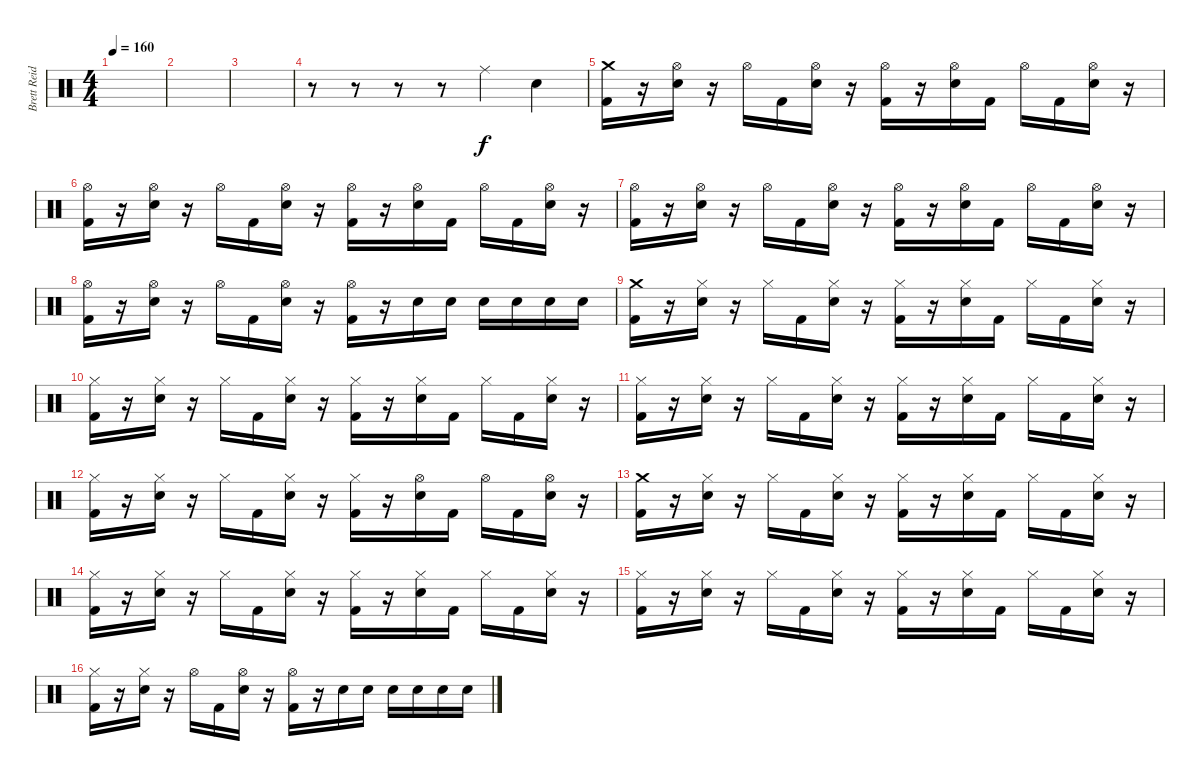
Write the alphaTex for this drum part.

\track ("Brett Reid" "Brett Reid") {instrument percussion}
\staff {score}
\articulation defaults
\ts (4 4)
\tempo 160
\clef neutral
\ks c
|
|
|
r.8 r.8 r.8 r.8 "Ride (middle)".4 "Snare (hit) 2".4 |
("Crash medium (hit)" "Kick (hit) 2").16 r.16 ("Hi-Hat (open)" "Snare (hit) 2").16 r.16 "Hi-Hat (open)".16 "Kick (hit) 2".16 ("Hi-Hat (open)" "Snare (hit) 2").16 r.16 ("Hi-Hat (open)" "Kick (hit) 2").16 r.16 ("Hi-Hat (open)" "Snare (hit) 2").16 "Kick (hit) 2".16 "Hi-Hat (open)".16 "Kick (hit) 2".16 ("Hi-Hat (open)" "Snare (hit) 2").16 r.16 |
("Hi-Hat (open)" "Kick (hit) 2").16 r.16 ("Hi-Hat (open)" "Snare (hit) 2").16 r.16 "Hi-Hat (open)".16 "Kick (hit) 2".16 ("Hi-Hat (open)" "Snare (hit) 2").16 r.16 ("Hi-Hat (open)" "Kick (hit) 2").16 r.16 ("Hi-Hat (open)" "Snare (hit) 2").16 "Kick (hit) 2".16 "Hi-Hat (open)".16 "Kick (hit) 2".16 ("Hi-Hat (open)" "Snare (hit) 2").16 r.16 |
("Hi-Hat (open)" "Kick (hit) 2").16 r.16 ("Hi-Hat (open)" "Snare (hit) 2").16 r.16 "Hi-Hat (open)".16 "Kick (hit) 2".16 ("Hi-Hat (open)" "Snare (hit) 2").16 r.16 ("Hi-Hat (open)" "Kick (hit) 2").16 r.16 ("Hi-Hat (open)" "Snare (hit) 2").16 "Kick (hit) 2".16 "Hi-Hat (open)".16 "Kick (hit) 2".16 ("Hi-Hat (open)" "Snare (hit) 2").16 r.16 |
("Hi-Hat (open)" "Kick (hit) 2").16 r.16 ("Hi-Hat (open)" "Snare (hit) 2").16 r.16 "Hi-Hat (open)".16 "Kick (hit) 2".16 ("Hi-Hat (open)" "Snare (hit) 2").16 r.16 ("Hi-Hat (open)" "Kick (hit) 2").16 r.16 "Snare (hit) 2".16 "Snare (hit) 2".16 "Snare (hit) 2".16 "Snare (hit) 2".16 "Snare (hit) 2".16 "Snare (hit) 2".16 |
("Crash medium (hit)" "Kick (hit) 2").16 r.16 ("Hi-Hat (closed)" "Snare (hit) 2").16 r.16 "Hi-Hat (closed)".16 "Kick (hit) 2".16 ("Hi-Hat (closed)" "Snare (hit) 2").16 r.16 ("Hi-Hat (closed)" "Kick (hit) 2").16 r.16 ("Hi-Hat (closed)" "Snare (hit) 2").16 "Kick (hit) 2".16 "Hi-Hat (closed)".16 "Kick (hit) 2".16 ("Hi-Hat (closed)" "Snare (hit) 2").16 r.16 |
("Hi-Hat (closed)" "Kick (hit) 2").16 r.16 ("Hi-Hat (closed)" "Snare (hit) 2").16 r.16 "Hi-Hat (closed)".16 "Kick (hit) 2".16 ("Hi-Hat (closed)" "Snare (hit) 2").16 r.16 ("Hi-Hat (closed)" "Kick (hit) 2").16 r.16 ("Hi-Hat (closed)" "Snare (hit) 2").16 "Kick (hit) 2".16 "Hi-Hat (closed)".16 "Kick (hit) 2".16 ("Hi-Hat (closed)" "Snare (hit) 2").16 r.16 |
("Hi-Hat (closed)" "Kick (hit) 2").16 r.16 ("Hi-Hat (closed)" "Snare (hit) 2").16 r.16 "Hi-Hat (closed)".16 "Kick (hit) 2".16 ("Hi-Hat (closed)" "Snare (hit) 2").16 r.16 ("Hi-Hat (closed)" "Kick (hit) 2").16 r.16 ("Hi-Hat (closed)" "Snare (hit) 2").16 "Kick (hit) 2".16 "Hi-Hat (closed)".16 "Kick (hit) 2".16 ("Hi-Hat (closed)" "Snare (hit) 2").16 r.16 |
("Hi-Hat (closed)" "Kick (hit) 2").16 r.16 ("Hi-Hat (closed)" "Snare (hit) 2").16 r.16 "Hi-Hat (closed)".16 "Kick (hit) 2".16 ("Hi-Hat (closed)" "Snare (hit) 2").16 r.16 ("Hi-Hat (closed)" "Kick (hit) 2").16 r.16 ("Hi-Hat (open)" "Snare (hit) 2").16 "Kick (hit) 2".16 "Hi-Hat (open)".16 "Kick (hit) 2".16 ("Hi-Hat (open)" "Snare (hit) 2").16 r.16 |
("Crash medium (hit)" "Kick (hit) 2").16 r.16 ("Hi-Hat (closed)" "Snare (hit) 2").16 r.16 "Hi-Hat (closed)".16 "Kick (hit) 2".16 ("Hi-Hat (closed)" "Snare (hit) 2").16 r.16 ("Hi-Hat (closed)" "Kick (hit) 2").16 r.16 ("Hi-Hat (closed)" "Snare (hit) 2").16 "Kick (hit) 2".16 "Hi-Hat (closed)".16 "Kick (hit) 2".16 ("Hi-Hat (closed)" "Snare (hit) 2").16 r.16 |
("Hi-Hat (closed)" "Kick (hit) 2").16 r.16 ("Hi-Hat (closed)" "Snare (hit) 2").16 r.16 "Hi-Hat (closed)".16 "Kick (hit) 2".16 ("Hi-Hat (closed)" "Snare (hit) 2").16 r.16 ("Hi-Hat (closed)" "Kick (hit) 2").16 r.16 ("Hi-Hat (closed)" "Snare (hit) 2").16 "Kick (hit) 2".16 "Hi-Hat (closed)".16 "Kick (hit) 2".16 ("Hi-Hat (closed)" "Snare (hit) 2").16 r.16 |
("Hi-Hat (closed)" "Kick (hit) 2").16 r.16 ("Hi-Hat (closed)" "Snare (hit) 2").16 r.16 "Hi-Hat (closed)".16 "Kick (hit) 2".16 ("Hi-Hat (closed)" "Snare (hit) 2").16 r.16 ("Hi-Hat (closed)" "Kick (hit) 2").16 r.16 ("Hi-Hat (closed)" "Snare (hit) 2").16 "Kick (hit) 2".16 "Hi-Hat (closed)".16 "Kick (hit) 2".16 ("Hi-Hat (closed)" "Snare (hit) 2").16 r.16 |
("Hi-Hat (closed)" "Kick (hit) 2").16 r.16 ("Hi-Hat (closed)" "Snare (hit) 2").16 r.16 "Hi-Hat (open)".16 "Kick (hit) 2".16 ("Hi-Hat (open)" "Snare (hit) 2").16 r.16 ("Hi-Hat (open)" "Kick (hit) 2").16 r.16 "Snare (hit) 2".16 "Snare (hit) 2".16 "Snare (hit) 2".16 "Snare (hit) 2".16 "Snare (hit) 2".16 "Snare (hit) 2".16
